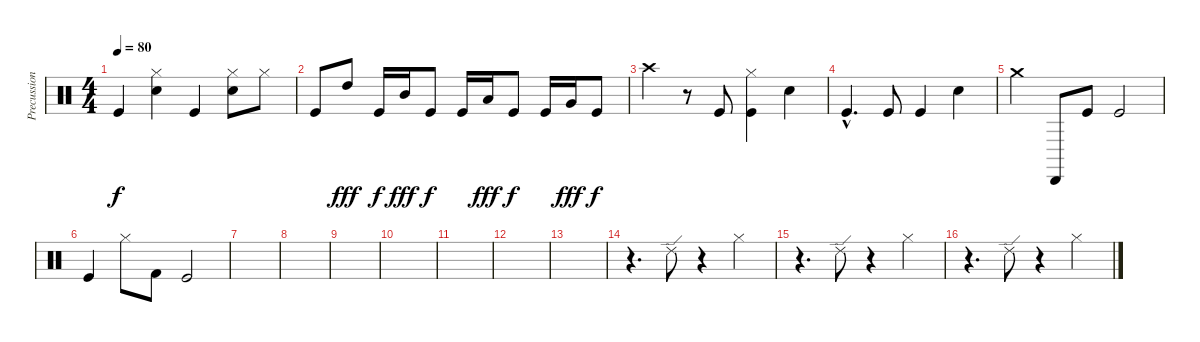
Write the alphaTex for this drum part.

\track ("Precussion" "Precussion") {instrument percussion}
\staff {score}
\articulation defaults
\ts (4 4)
\tempo 80
\clef neutral
\ks c "Kick (hit)".4{dy f}
("Hi-Hat (closed)" "Snare (hit) 2").4 "Kick (hit)".4 ("Hi-Hat (closed)" "Snare (hit) 2").8 "Hi-Hat (closed)".8 |
"Kick (hit)".8{volume 16} "High Tom (hit)".8{dy fff} "Kick (hit)".16{dy f} "Mid Tom (hit)".16{dy fff} "Kick (hit)".8{dy f} "Kick (hit)".16 "Low Tom (hit)".16{dy fff} "Kick (hit)".8{dy f} "Kick (hit)".16 "Very Low Tom (hit)".16{dy fff} "Kick (hit)".8{dy f} |
"Crash high (hit)".4 r.8 "Kick (hit)".8{volume 12} ("Hi-Hat (closed)" "Kick (hit)").4 "Snare (hit)".4 |
"Kick (hit)"{hac}.4{d} "Kick (hit)".8 "Kick (hit)".4 "Snare (hit)".4 |
"Crash medium (hit)".4 "Cabasa (hit)".8 "Kick (hit)".8 "Kick (hit)".2 |
"Kick (hit)".4 "Hi-Hat (closed)".8 "Kick (hit) 2".8 "Kick (hit)".2 |
|
|
|
|
|
|
|
r.4{d} "Ride (edge) 2".8 r.4 "Hi-Hat (closed)".4{balance 16} |
r.4{d} "Ride (edge) 2".8 r.4 "Hi-Hat (closed)".4{balance 16} |
r.4{d} "Ride (edge) 2".8{balance 8} r.4 "Hi-Hat (closed)".4{balance 16}
